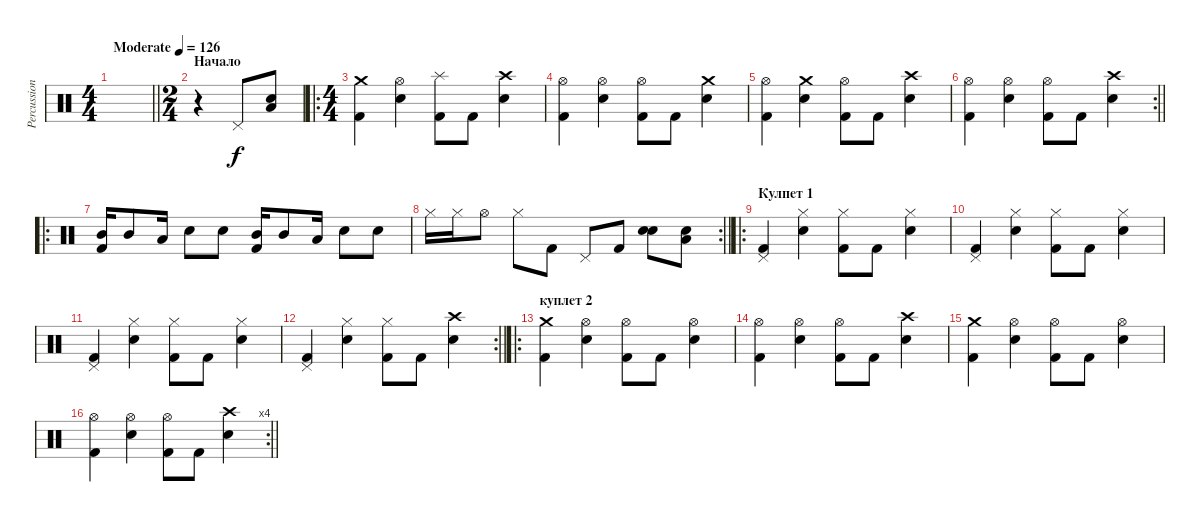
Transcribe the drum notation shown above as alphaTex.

\track ("Percussion" "Percussion") {instrument percussion bank 127}
\staff {score}
\articulation defaults
\ts (4 4)
\tempo (126 "Moderate")
\clef neutral
\barLineRight lightlight
\ks c
|
\ts (2 4)
\section ("" "Начало")
r.4 "Pedal Hi-Hat (hit)".8 ("Low Floor Tom (hit)" "Snare (hit) 2").8 |
\ro
\ts (4 4)
("Crash medium (hit)" "Kick (hit) 2").4 ("Hi-Hat (open)" "Snare (hit) 2").4 ("Splash (hit)" "Kick (hit) 2").8 "Kick (hit) 2".8 ("Crash high (hit)" "Snare (hit) 2").4 |
("Hi-Hat (open)" "Kick (hit) 2").4 ("Hi-Hat (open)" "Snare (hit) 2").4 ("Hi-Hat (open)" "Kick (hit) 2").8 "Kick (hit) 2".8 ("Crash medium (hit)" "Snare (hit) 2").4 |
("Hi-Hat (open)" "Kick (hit) 2").4 ("Crash medium (hit)" "Snare (hit) 2").4 ("Hi-Hat (open)" "Kick (hit) 2").8 "Kick (hit) 2".8 ("Crash high (hit)" "Snare (hit) 2").4 |
\rc 2
\barLineRight lightlight
("Hi-Hat (open)" "Kick (hit) 2").4 ("Hi-Hat (open)" "Snare (hit) 2").4 ("Hi-Hat (open)" "Kick (hit) 2").8 "Kick (hit) 2".8 ("Crash high (hit)" "Snare (hit) 2").4 |
\ro
("Mid Tom (hit)" "Kick (hit) 2").16 "Mid Tom (hit)".8 "Low Tom (hit)".16 "Snare (hit) 2".8 "Snare (hit) 2".8 ("Mid Tom (hit)" "Kick (hit) 2").16 "Mid Tom (hit)".8 "Low Tom (hit)".16 "Snare (hit) 2".8 "Snare (hit) 2".8 |
\rc 2
\barLineRight lightlight "Hi-Hat (closed)".16 "Hi-Hat (closed)".16 "Hi-Hat (open)".8 "Hi-Hat (closed)".8 "Kick (hit) 2".8 "Pedal Hi-Hat (hit)".8 "Kick (hit) 2".8
("Snare (hit) 2" "Snare (hit) 2").8 ("Low Tom (hit)" "Snare (hit) 2").8 |
\ro
\section ("" "Кулпет 1")
("Pedal Hi-Hat (hit)" "Kick (hit) 2").4 ("Hi-Hat (closed)" "Snare (hit) 2").4 ("Hi-Hat (closed)" "Kick (hit) 2").8 "Kick (hit) 2".8 ("Hi-Hat (closed)" "Snare (hit) 2").4 |
("Pedal Hi-Hat (hit)" "Kick (hit) 2").4 ("Hi-Hat (closed)" "Snare (hit) 2").4 ("Hi-Hat (closed)" "Kick (hit) 2").8 "Kick (hit) 2".8 ("Hi-Hat (closed)" "Snare (hit) 2").4 |
("Pedal Hi-Hat (hit)" "Kick (hit) 2").4 ("Hi-Hat (closed)" "Snare (hit) 2").4 ("Hi-Hat (closed)" "Kick (hit) 2").8 "Kick (hit) 2".8 ("Hi-Hat (closed)" "Snare (hit) 2").4 |
\rc 2
\barLineRight lightlight
("Pedal Hi-Hat (hit)" "Kick (hit) 2").4 ("Hi-Hat (closed)" "Snare (hit) 2").4 ("Hi-Hat (closed)" "Kick (hit) 2").8 "Kick (hit) 2".8 ("Crash high (hit)" "Snare (hit) 2").4 |
\ro
\section ("" "куплет 2")
("Crash medium (hit)" "Kick (hit) 2").4 ("Hi-Hat (open)" "Snare (hit) 2").4 ("Hi-Hat (open)" "Kick (hit) 2").8 "Kick (hit) 2".8 ("Hi-Hat (open)" "Snare (hit) 2").4 |
("Hi-Hat (open)" "Kick (hit) 2").4 ("Hi-Hat (open)" "Snare (hit) 2").4 ("Hi-Hat (open)" "Kick (hit) 2").8 "Kick (hit) 2".8 ("Crash high (hit)" "Snare (hit) 2").4 |
("Crash medium (hit)" "Kick (hit) 2").4 ("Hi-Hat (open)" "Snare (hit) 2").4 ("Hi-Hat (open)" "Kick (hit) 2").8 "Kick (hit) 2".8 ("Hi-Hat (open)" "Snare (hit) 2").4 |
\rc 4
\barLineRight lightlight
("Hi-Hat (open)" "Kick (hit) 2").4 ("Hi-Hat (open)" "Snare (hit) 2").4 ("Hi-Hat (open)" "Kick (hit) 2").8 "Kick (hit) 2".8 ("Crash high (hit)" "Snare (hit) 2").4
